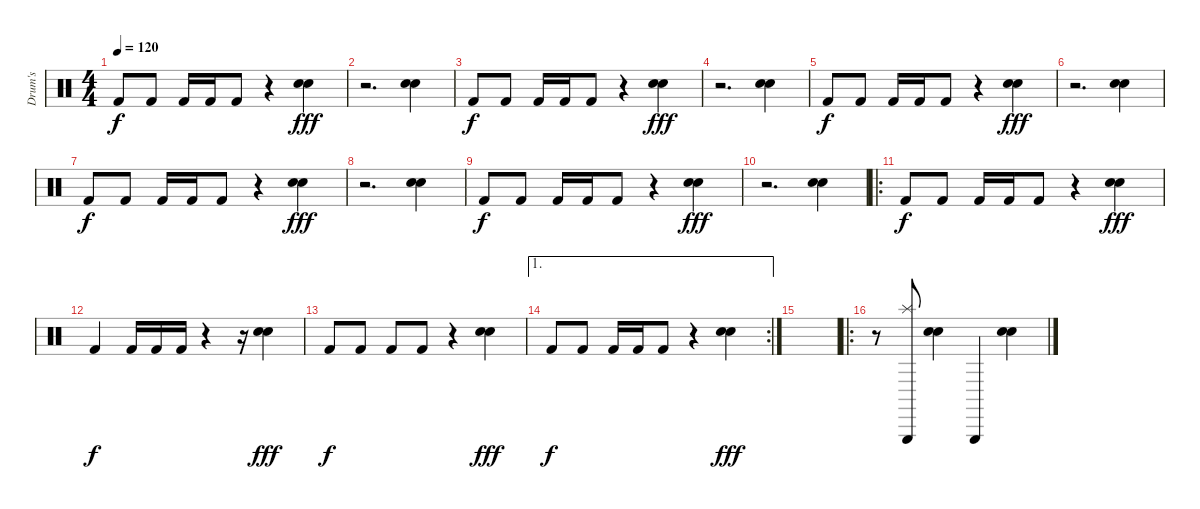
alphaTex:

\track ("Drum's" "Drum's") {instrument percussion}
\staff {score}
\articulation defaults
\ts (4 4)
\tempo 120
\clef neutral
\ks c "Kick (hit) 2".8{dy f} "Kick (hit) 2".8 "Kick (hit) 2".16 "Kick (hit) 2".16 "Kick (hit) 2".8
r.4 ("Hand Clap (hit)" "Snare (hit) 2").4{dy fff} |
r.2{d} ("Hand Clap (hit)" "Snare (hit) 2").4 |
"Kick (hit) 2".8{dy f} "Kick (hit) 2".8 "Kick (hit) 2".16 "Kick (hit) 2".16 "Kick (hit) 2".8 r.4 ("Hand Clap (hit)" "Snare (hit) 2").4{dy fff} |
r.2{d} ("Hand Clap (hit)" "Snare (hit) 2").4 |
"Kick (hit) 2".8{dy f} "Kick (hit) 2".8 "Kick (hit) 2".16 "Kick (hit) 2".16 "Kick (hit) 2".8 r.4 ("Hand Clap (hit)" "Snare (hit) 2").4{dy fff} |
r.2{d} ("Hand Clap (hit)" "Snare (hit) 2").4 |
"Kick (hit) 2".8{dy f} "Kick (hit) 2".8 "Kick (hit) 2".16 "Kick (hit) 2".16 "Kick (hit) 2".8 r.4 ("Hand Clap (hit)" "Snare (hit) 2").4{dy fff} |
r.2{d} ("Hand Clap (hit)" "Snare (hit) 2").4 |
"Kick (hit) 2".8{dy f} "Kick (hit) 2".8 "Kick (hit) 2".16 "Kick (hit) 2".16 "Kick (hit) 2".8 r.4 ("Hand Clap (hit)" "Snare (hit) 2").4{dy fff} |
r.2{d} ("Hand Clap (hit)" "Snare (hit) 2").4 |
\ro "Kick (hit) 2".8{dy f} "Kick (hit) 2".8 "Kick (hit) 2".16 "Kick (hit) 2".16 "Kick (hit) 2".8
r.4 ("Hand Clap (hit)" "Snare (hit) 2").4{dy fff} |
"Kick (hit) 2".4{dy f} "Kick (hit) 2".16 "Kick (hit) 2".16 "Kick (hit) 2".16 r.4 r.16 ("Hand Clap (hit)" "Snare (hit) 2").4{dy fff} |
"Kick (hit) 2".8{dy f} "Kick (hit) 2".8 "Kick (hit) 2".8 "Kick (hit) 2".8 r.4 ("Hand Clap (hit)" "Snare (hit) 2").4{dy fff} |
\ae 1
\rc 2 "Kick (hit) 2".8{dy f} "Kick (hit) 2".8 "Kick (hit) 2".16 "Kick (hit) 2".16 "Kick (hit) 2".8
r.4 ("Hand Clap (hit)" "Snare (hit) 2").4{dy fff} |
|
\ro
r.8 ("Splash (hit)" "Triangle (hit)").8 ("Hand Clap (hit)" "Snare (hit) 2").4 "Triangle (hit)".4 ("Hand Clap (hit)" "Snare (hit) 2").4
